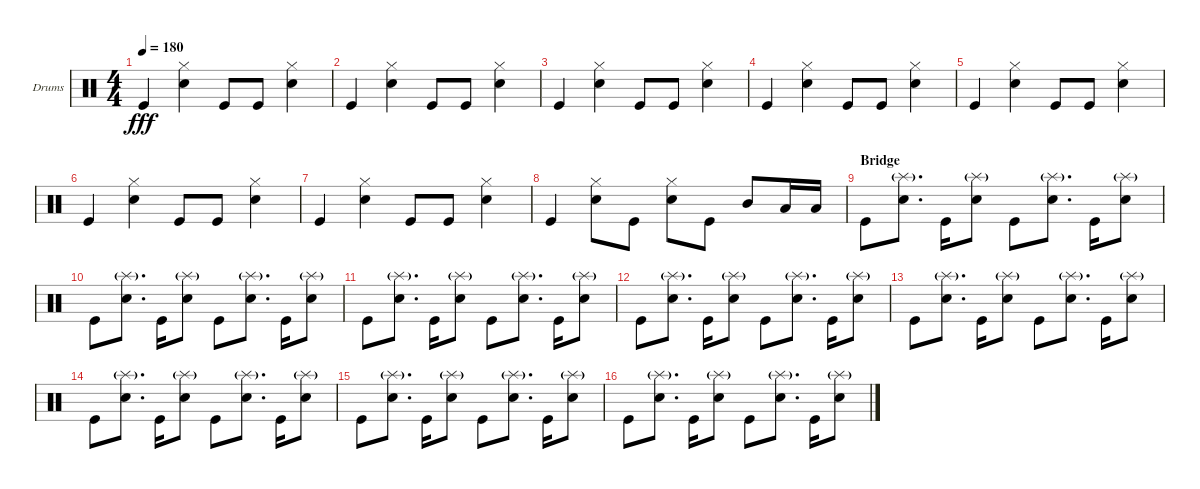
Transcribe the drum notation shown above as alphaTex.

\bracketExtendMode groupsimilarinstruments
\firstSystemTrackNameOrientation horizontal
\otherSystemsTrackNameOrientation horizontal
\track ("Drumkit" "Drums") {instrument percussion}
\staff {score}
\articulation defaults
\ts (4 4)
\tempo 180
\clef neutral
\scale
0.333333
\ks c "Kick (hit)".4{dy fff}
("Snare (hit) 2" "Hi-Hat (closed)").4 "Kick (hit)".8 "Kick (hit)".8 ("Snare (hit) 2" "Hi-Hat (closed)").4 |
\scale
0.333333 "Kick (hit)".4 ("Snare (hit) 2" "Hi-Hat (closed)").4 "Kick (hit)".8 "Kick (hit)".8 ("Snare (hit) 2" "Hi-Hat (closed)").4 |
\scale
0.333333 "Kick (hit)".4 ("Snare (hit) 2" "Hi-Hat (closed)").4 "Kick (hit)".8 "Kick (hit)".8 ("Snare (hit) 2" "Hi-Hat (closed)").4 |
\scale
0.333333 "Kick (hit)".4 ("Snare (hit) 2" "Hi-Hat (closed)").4 "Kick (hit)".8 "Kick (hit)".8 ("Snare (hit) 2" "Hi-Hat (closed)").4 |
\scale
0.333333 "Kick (hit)".4 ("Snare (hit) 2" "Hi-Hat (closed)").4 "Kick (hit)".8 "Kick (hit)".8 ("Snare (hit) 2" "Hi-Hat (closed)").4 |
\scale
0.333333 "Kick (hit)".4 ("Snare (hit) 2" "Hi-Hat (closed)").4 "Kick (hit)".8 "Kick (hit)".8 ("Snare (hit) 2" "Hi-Hat (closed)").4 |
\scale
0.333333 "Kick (hit)".4 ("Snare (hit) 2" "Hi-Hat (closed)").4 "Kick (hit)".8 "Kick (hit)".8 ("Snare (hit) 2" "Hi-Hat (closed)").4 |
\scale
0.333333 "Kick (hit)".4 ("Snare (hit) 2" "Hi-Hat (closed)").8 "Kick (hit)".8 ("Snare (hit) 2" "Hi-Hat (closed)").8 "Kick (hit)".8 "Mid Tom (hit)".8 "Low Tom (hit)".16 "Low Tom (hit)".16 |
\section ("" "Bridge")
\scale
0.333333 "Kick (hit)".8 ("Snare (hit) 2" "Splash (hit)"{g}).8{d} "Kick (hit)".16 ("Snare (hit) 2" "Splash (hit)"{g}).8 "Kick (hit)".8 ("Snare (hit) 2" "Splash (hit)"{g}).8{d} "Kick (hit)".16 ("Snare (hit) 2" "Splash (hit)"{g}).8 |
\scale
0.333333 "Kick (hit)".8 ("Snare (hit) 2" "Splash (hit)"{g}).8{d} "Kick (hit)".16 ("Snare (hit) 2" "Splash (hit)"{g}).8 "Kick (hit)".8 ("Snare (hit) 2" "Splash (hit)"{g}).8{d} "Kick (hit)".16 ("Snare (hit) 2" "Splash (hit)"{g}).8 |
\scale
0.333333 "Kick (hit)".8 ("Snare (hit) 2" "Splash (hit)"{g}).8{d} "Kick (hit)".16 ("Snare (hit) 2" "Splash (hit)"{g}).8 "Kick (hit)".8 ("Snare (hit) 2" "Splash (hit)"{g}).8{d} "Kick (hit)".16 ("Snare (hit) 2" "Splash (hit)"{g}).8 |
\scale
0.333333 "Kick (hit)".8 ("Snare (hit) 2" "Splash (hit)"{g}).8{d} "Kick (hit)".16 ("Snare (hit) 2" "Splash (hit)"{g}).8 "Kick (hit)".8 ("Snare (hit) 2" "Splash (hit)"{g}).8{d} "Kick (hit)".16 ("Snare (hit) 2" "Splash (hit)"{g}).8 |
\scale
0.333333 "Kick (hit)".8 ("Snare (hit) 2" "Splash (hit)"{g}).8{d} "Kick (hit)".16 ("Snare (hit) 2" "Splash (hit)"{g}).8 "Kick (hit)".8 ("Snare (hit) 2" "Splash (hit)"{g}).8{d} "Kick (hit)".16 ("Snare (hit) 2" "Splash (hit)"{g}).8 |
\scale
0.333333 "Kick (hit)".8 ("Snare (hit) 2" "Splash (hit)"{g}).8{d} "Kick (hit)".16 ("Snare (hit) 2" "Splash (hit)"{g}).8 "Kick (hit)".8 ("Snare (hit) 2" "Splash (hit)"{g}).8{d} "Kick (hit)".16 ("Snare (hit) 2" "Splash (hit)"{g}).8 |
\scale
0.333333 "Kick (hit)".8 ("Snare (hit) 2" "Splash (hit)"{g}).8{d} "Kick (hit)".16 ("Snare (hit) 2" "Splash (hit)"{g}).8 "Kick (hit)".8 ("Snare (hit) 2" "Splash (hit)"{g}).8{d} "Kick (hit)".16 ("Snare (hit) 2" "Splash (hit)"{g}).8 |
\scale
0.333333 "Kick (hit)".8 ("Snare (hit) 2" "Splash (hit)"{g}).8{d} "Kick (hit)".16 ("Snare (hit) 2" "Splash (hit)"{g}).8 "Kick (hit)".8 ("Snare (hit) 2" "Splash (hit)"{g}).8{d} "Kick (hit)".16 ("Snare (hit) 2" "Splash (hit)"{g}).8
